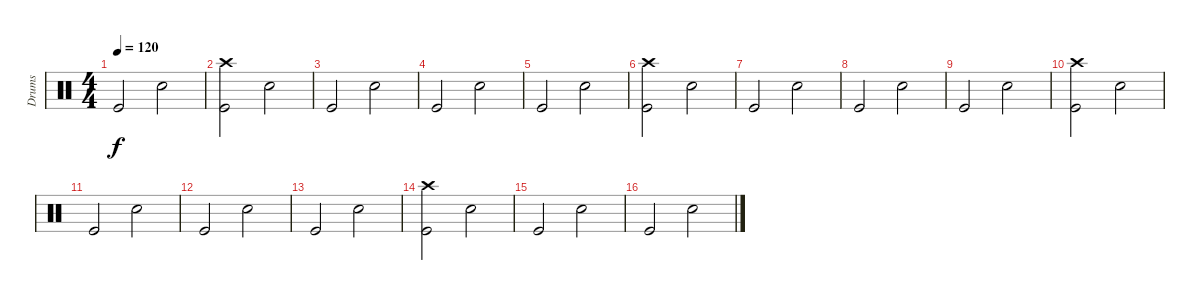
\track ("Drums" "Drums") {instrument percussion}
\staff {score}
\articulation defaults
\ts (4 4)
\tempo 120
\clef neutral
\ks c "Kick (hit)".2{dy f} "Snare (hit) 2".2
|
("Crash high (hit)" "Kick (hit)").2 "Snare (hit) 2".2 |
"Kick (hit)".2 "Snare (hit) 2".2 |
"Kick (hit)".2 "Snare (hit) 2".2 |
"Kick (hit)".2 "Snare (hit) 2".2 |
("Crash high (hit)" "Kick (hit)").2 "Snare (hit) 2".2 |
"Kick (hit)".2 "Snare (hit) 2".2 |
"Kick (hit)".2 "Snare (hit) 2".2 |
"Kick (hit)".2 "Snare (hit) 2".2 |
("Crash high (hit)" "Kick (hit)").2 "Snare (hit) 2".2 |
"Kick (hit)".2 "Snare (hit) 2".2 |
"Kick (hit)".2 "Snare (hit) 2".2 |
"Kick (hit)".2 "Snare (hit) 2".2 |
("Crash high (hit)" "Kick (hit)").2 "Snare (hit) 2".2 |
"Kick (hit)".2 "Snare (hit) 2".2 |
"Kick (hit)".2 "Snare (hit) 2".2
